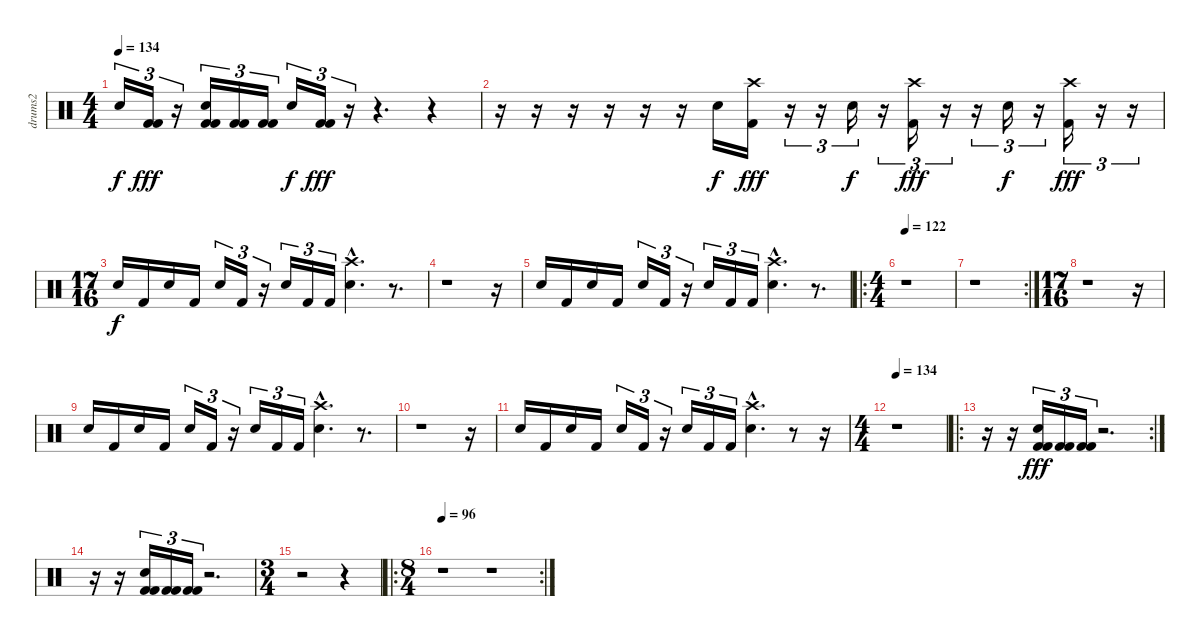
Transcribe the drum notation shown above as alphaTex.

\track ("drums2" "drums2") {instrument percussion}
\staff {score}
\articulation defaults
\ts (4 4)
\tempo 134
\clef neutral
\ks c "Snare (hit) 2".16{tu (3 2) dy f}
("Kick (hit) 2" "Kick (hit) 2").16{tu (3 2) dy fff} r.16{tu (3 2)} ("Snare (hit) 2" "Kick (hit) 2" "Kick (hit) 2").16{tu (3 2)} ("Kick (hit) 2" "Kick (hit) 2").16{tu (3 2)} ("Kick (hit) 2" "Kick (hit) 2").16{tu (3 2)} "Snare (hit) 2".16{tu (3 2) dy f} ("Kick (hit) 2" "Kick (hit) 2").16{tu (3 2) dy fff} r.16{tu (3 2)} r.4{d} r.4 |
r.16 r.16 r.16 r.16 r.16 r.16 "Snare (hit) 2".16{dy f} ("Crash high (hit)" "Kick (hit) 2").16{dy fff} r.16{tu (3 2)} r.16{tu (3 2)} "Snare (hit) 2".16{tu (3 2) dy f} r.16{tu (3 2)} ("Crash high (hit)" "Kick (hit) 2").16{tu (3 2) dy fff} r.16{tu (3 2)} r.16{tu (3 2)} "Snare (hit) 2".16{tu (3 2) dy f} r.16{tu (3 2)} ("Crash high (hit)" "Kick (hit) 2").16{tu (3 2) dy fff} r.16{tu (3 2)} r.16{tu (3 2)} |
\ts (17 16)
"Snare (hit) 2".16{dy f} "Kick (hit) 2".16 "Snare (hit) 2".16 "Kick (hit) 2".16 "Snare (hit) 2".16{tu (3 2)} "Kick (hit) 2".16{tu (3 2)} r.16{tu (3 2)} "Snare (hit) 2".16{tu (3 2)} "Kick (hit) 2".16{tu (3 2)} "Kick (hit) 2".16{tu (3 2)} ("Crash high (hit)"{hac} "Snare (hit) 2"{hac}).4{d} r.8{d} |
r.1 r.16 |
"Snare (hit) 2".16 "Kick (hit) 2".16 "Snare (hit) 2".16 "Kick (hit) 2".16 "Snare (hit) 2".16{tu (3 2)} "Kick (hit) 2".16{tu (3 2)} r.16{tu (3 2)} "Snare (hit) 2".16{tu (3 2)} "Kick (hit) 2".16{tu (3 2)} "Kick (hit) 2".16{tu (3 2)} ("Crash high (hit)"{hac} "Snare (hit) 2"{hac}).4{d} r.8{d} |
\ro
\ts (4 4)
\tempo 122
r.1 |
\rc 2
r.1 |
\ts (17 16)
r.1 r.16 |
"Snare (hit) 2".16 "Kick (hit) 2".16 "Snare (hit) 2".16 "Kick (hit) 2".16 "Snare (hit) 2".16{tu (3 2)} "Kick (hit) 2".16{tu (3 2)} r.16{tu (3 2)} "Snare (hit) 2".16{tu (3 2)} "Kick (hit) 2".16{tu (3 2)} "Kick (hit) 2".16{tu (3 2)} ("Crash high (hit)"{hac} "Snare (hit) 2"{hac}).4{d} r.8{d} |
r.1 r.16 |
"Snare (hit) 2".16 "Kick (hit) 2".16 "Snare (hit) 2".16 "Kick (hit) 2".16 "Snare (hit) 2".16{tu (3 2)} "Kick (hit) 2".16{tu (3 2)} r.16{tu (3 2)} "Snare (hit) 2".16{tu (3 2)} "Kick (hit) 2".16{tu (3 2)} "Kick (hit) 2".16{tu (3 2)} ("Crash high (hit)"{hac} "Snare (hit) 2"{hac}).4{d} r.8 r.16 |
\ts (4 4)
\tempo 134
r.1 |
\ro
\rc 2
r.16 r.16 ("Snare (hit) 2" "Kick (hit) 2" "Kick (hit) 2").16{tu (3 2) dy fff} ("Kick (hit) 2" "Kick (hit) 2").16{tu (3 2)} ("Kick (hit) 2" "Kick (hit) 2").16{tu (3 2)} r.2{d} |
r.16 r.16 ("Snare (hit) 2" "Kick (hit) 2" "Kick (hit) 2").16{tu (3 2)} ("Kick (hit) 2" "Kick (hit) 2").16{tu (3 2)} ("Kick (hit) 2" "Kick (hit) 2").16{tu (3 2)} r.2{d} |
\ts (3 4)
r.2 r.4 |
\ro
\rc 2
\ts (8 4)
\tempo 96
r.1 r.1
